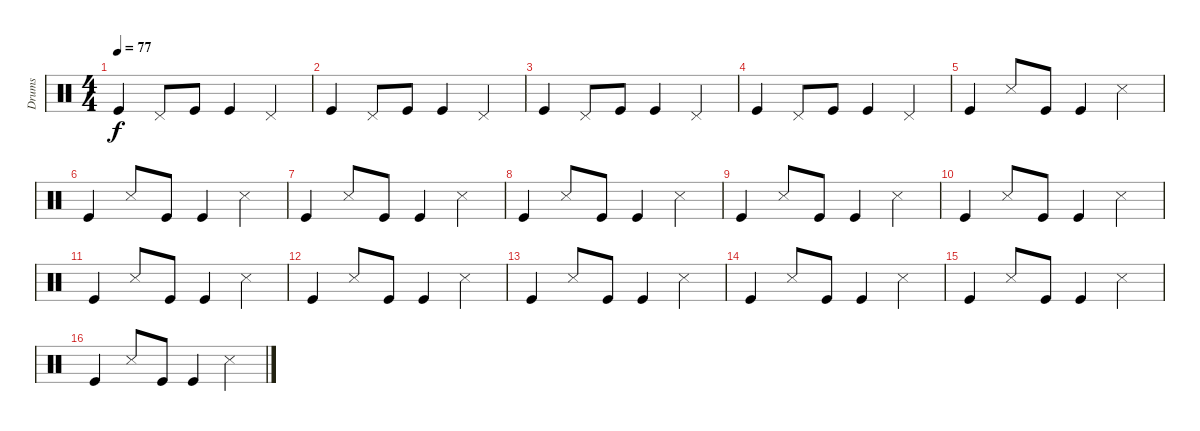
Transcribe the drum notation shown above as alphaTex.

\track ("Drums" "Drums") {instrument percussion}
\staff {score}
\articulation defaults
\ts (4 4)
\tempo 77
\clef neutral
\ks c "Kick (hit)".4{dy f} "Pedal Hi-Hat (hit)".8 "Kick (hit)".8 "Kick (hit)".4 "Pedal Hi-Hat (hit)".4
|
"Kick (hit)".4 "Pedal Hi-Hat (hit)".8 "Kick (hit)".8 "Kick (hit)".4 "Pedal Hi-Hat (hit)".4 |
"Kick (hit)".4 "Pedal Hi-Hat (hit)".8 "Kick (hit)".8 "Kick (hit)".4 "Pedal Hi-Hat (hit)".4 |
"Kick (hit)".4 "Pedal Hi-Hat (hit)".8 "Kick (hit)".8 "Kick (hit)".4 "Pedal Hi-Hat (hit)".4 |
"Kick (hit)".4 "Snare (side stick) 3".8 "Kick (hit)".8 "Kick (hit)".4 "Snare (side stick) 3".4 |
"Kick (hit)".4 "Snare (side stick) 3".8 "Kick (hit)".8 "Kick (hit)".4 "Snare (side stick) 3".4 |
"Kick (hit)".4 "Snare (side stick) 3".8 "Kick (hit)".8 "Kick (hit)".4 "Snare (side stick) 3".4 |
"Kick (hit)".4 "Snare (side stick) 3".8 "Kick (hit)".8 "Kick (hit)".4 "Snare (side stick) 3".4 |
"Kick (hit)".4 "Snare (side stick) 3".8 "Kick (hit)".8 "Kick (hit)".4 "Snare (side stick) 3".4 |
"Kick (hit)".4 "Snare (side stick) 3".8 "Kick (hit)".8 "Kick (hit)".4 "Snare (side stick) 3".4 |
"Kick (hit)".4 "Snare (side stick) 3".8 "Kick (hit)".8 "Kick (hit)".4 "Snare (side stick) 3".4 |
"Kick (hit)".4 "Snare (side stick) 3".8 "Kick (hit)".8 "Kick (hit)".4 "Snare (side stick) 3".4 |
"Kick (hit)".4 "Snare (side stick) 3".8 "Kick (hit)".8 "Kick (hit)".4 "Snare (side stick) 3".4 |
"Kick (hit)".4 "Snare (side stick) 3".8 "Kick (hit)".8 "Kick (hit)".4 "Snare (side stick) 3".4 |
"Kick (hit)".4 "Snare (side stick) 3".8 "Kick (hit)".8 "Kick (hit)".4 "Snare (side stick) 3".4 |
"Kick (hit)".4 "Snare (side stick) 3".8 "Kick (hit)".8 "Kick (hit)".4 "Snare (side stick) 3".4
